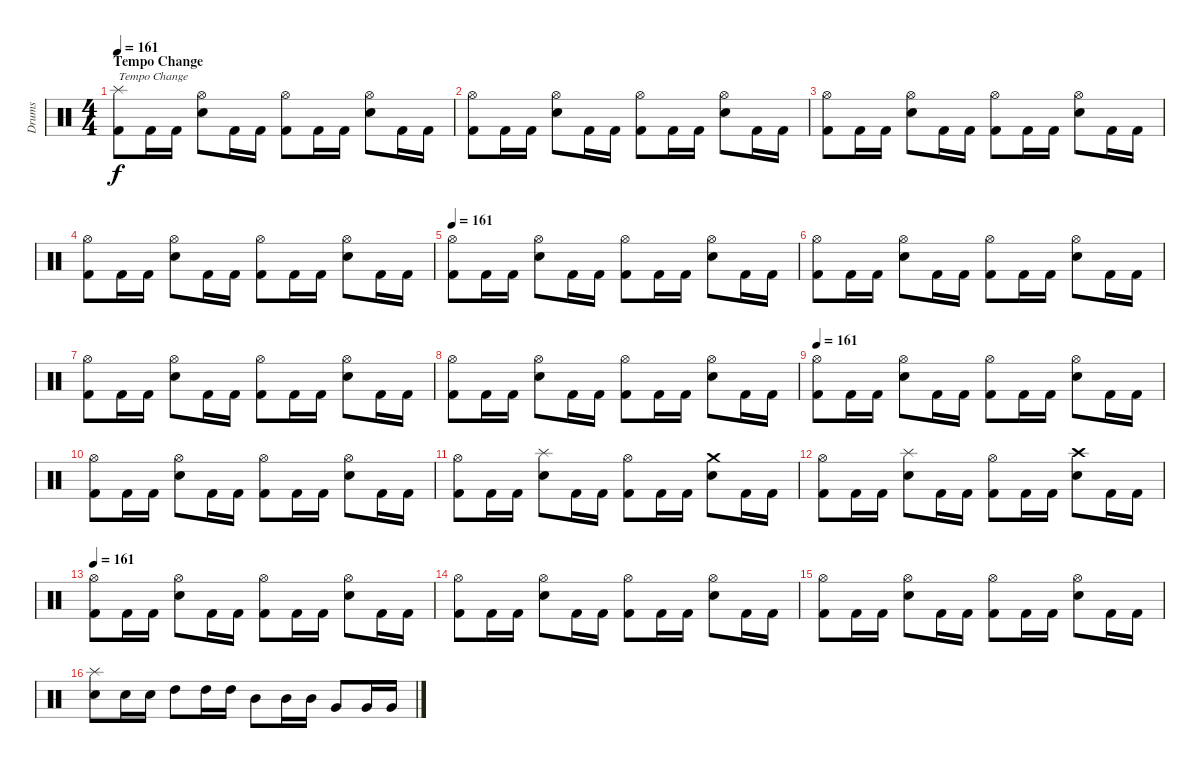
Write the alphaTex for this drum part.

\track ("Drums" "Drums") {instrument percussion}
\staff {score}
\articulation defaults
\ts (4 4)
\section ("" "Tempo Change")
\tempo 161
\clef neutral
\ks c
("Kick (hit) 2" "Splash (hit)").8{txt "Tempo Change" dy f} "Kick (hit) 2".16 "Kick (hit) 2".16 ("Electric Snare (hit)" "Hi-Hat (open)").8 "Kick (hit) 2".16 "Kick (hit) 2".16 ("Kick (hit) 2" "Hi-Hat (open)").8 "Kick (hit) 2".16 "Kick (hit) 2".16 ("Electric Snare (hit)" "Hi-Hat (open)").8 "Kick (hit) 2".16 "Kick (hit) 2".16 |
("Kick (hit) 2" "Hi-Hat (open)").8 "Kick (hit) 2".16 "Kick (hit) 2".16 ("Electric Snare (hit)" "Hi-Hat (open)").8 "Kick (hit) 2".16 "Kick (hit) 2".16 ("Kick (hit) 2" "Hi-Hat (open)").8 "Kick (hit) 2".16 "Kick (hit) 2".16 ("Electric Snare (hit)" "Hi-Hat (open)").8 "Kick (hit) 2".16 "Kick (hit) 2".16 |
("Kick (hit) 2" "Hi-Hat (open)").8 "Kick (hit) 2".16 "Kick (hit) 2".16 ("Electric Snare (hit)" "Hi-Hat (open)").8 "Kick (hit) 2".16 "Kick (hit) 2".16 ("Kick (hit) 2" "Hi-Hat (open)").8 "Kick (hit) 2".16 "Kick (hit) 2".16 ("Electric Snare (hit)" "Hi-Hat (open)").8 "Kick (hit) 2".16 "Kick (hit) 2".16 |
("Kick (hit) 2" "Hi-Hat (open)").8 "Kick (hit) 2".16 "Kick (hit) 2".16 ("Electric Snare (hit)" "Hi-Hat (open)").8 "Kick (hit) 2".16 "Kick (hit) 2".16 ("Kick (hit) 2" "Hi-Hat (open)").8 "Kick (hit) 2".16 "Kick (hit) 2".16 ("Electric Snare (hit)" "Hi-Hat (open)").8 "Kick (hit) 2".16 "Kick (hit) 2".16 |
\tempo 161
("Kick (hit) 2" "Hi-Hat (open)").8 "Kick (hit) 2".16 "Kick (hit) 2".16 ("Electric Snare (hit)" "Hi-Hat (open)").8 "Kick (hit) 2".16 "Kick (hit) 2".16 ("Kick (hit) 2" "Hi-Hat (open)").8 "Kick (hit) 2".16 "Kick (hit) 2".16 ("Electric Snare (hit)" "Hi-Hat (open)").8 "Kick (hit) 2".16 "Kick (hit) 2".16 |
("Kick (hit) 2" "Hi-Hat (open)").8 "Kick (hit) 2".16 "Kick (hit) 2".16 ("Electric Snare (hit)" "Hi-Hat (open)").8 "Kick (hit) 2".16 "Kick (hit) 2".16 ("Kick (hit) 2" "Hi-Hat (open)").8 "Kick (hit) 2".16 "Kick (hit) 2".16 ("Electric Snare (hit)" "Hi-Hat (open)").8 "Kick (hit) 2".16 "Kick (hit) 2".16 |
("Kick (hit) 2" "Hi-Hat (open)").8 "Kick (hit) 2".16 "Kick (hit) 2".16 ("Electric Snare (hit)" "Hi-Hat (open)").8 "Kick (hit) 2".16 "Kick (hit) 2".16 ("Kick (hit) 2" "Hi-Hat (open)").8 "Kick (hit) 2".16 "Kick (hit) 2".16 ("Electric Snare (hit)" "Hi-Hat (open)").8 "Kick (hit) 2".16 "Kick (hit) 2".16 |
("Kick (hit) 2" "Hi-Hat (open)").8 "Kick (hit) 2".16 "Kick (hit) 2".16 ("Electric Snare (hit)" "Hi-Hat (open)").8 "Kick (hit) 2".16 "Kick (hit) 2".16 ("Kick (hit) 2" "Hi-Hat (open)").8 "Kick (hit) 2".16 "Kick (hit) 2".16 ("Electric Snare (hit)" "Hi-Hat (open)").8 "Kick (hit) 2".16 "Kick (hit) 2".16 |
\tempo 161
("Kick (hit) 2" "Hi-Hat (open)").8 "Kick (hit) 2".16 "Kick (hit) 2".16 ("Electric Snare (hit)" "Hi-Hat (open)").8 "Kick (hit) 2".16 "Kick (hit) 2".16 ("Kick (hit) 2" "Hi-Hat (open)").8 "Kick (hit) 2".16 "Kick (hit) 2".16 ("Electric Snare (hit)" "Hi-Hat (open)").8 "Kick (hit) 2".16 "Kick (hit) 2".16 |
("Kick (hit) 2" "Hi-Hat (open)").8 "Kick (hit) 2".16 "Kick (hit) 2".16 ("Electric Snare (hit)" "Hi-Hat (open)").8 "Kick (hit) 2".16 "Kick (hit) 2".16 ("Kick (hit) 2" "Hi-Hat (open)").8 "Kick (hit) 2".16 "Kick (hit) 2".16 ("Electric Snare (hit)" "Hi-Hat (open)").8 "Kick (hit) 2".16 "Kick (hit) 2".16 |
("Kick (hit) 2" "Hi-Hat (open)").8 "Kick (hit) 2".16 "Kick (hit) 2".16 ("Electric Snare (hit)" "Splash (hit)").8 "Kick (hit) 2".16 "Kick (hit) 2".16 ("Kick (hit) 2" "Hi-Hat (open)").8 "Kick (hit) 2".16 "Kick (hit) 2".16 ("Electric Snare (hit)" "Crash medium (hit)").8 "Kick (hit) 2".16 "Kick (hit) 2".16 |
("Kick (hit) 2" "Hi-Hat (open)").8 "Kick (hit) 2".16 "Kick (hit) 2".16 ("Electric Snare (hit)" "Splash (hit)").8 "Kick (hit) 2".16 "Kick (hit) 2".16 ("Kick (hit) 2" "Hi-Hat (open)").8 "Kick (hit) 2".16 "Kick (hit) 2".16 ("Electric Snare (hit)" "Crash high (hit)").8 "Kick (hit) 2".16 "Kick (hit) 2".16 |
\tempo 161
("Kick (hit) 2" "Hi-Hat (open)").8 "Kick (hit) 2".16 "Kick (hit) 2".16 ("Electric Snare (hit)" "Hi-Hat (open)").8 "Kick (hit) 2".16 "Kick (hit) 2".16 ("Kick (hit) 2" "Hi-Hat (open)").8 "Kick (hit) 2".16 "Kick (hit) 2".16 ("Electric Snare (hit)" "Hi-Hat (open)").8 "Kick (hit) 2".16 "Kick (hit) 2".16 |
("Kick (hit) 2" "Hi-Hat (open)").8 "Kick (hit) 2".16 "Kick (hit) 2".16 ("Electric Snare (hit)" "Hi-Hat (open)").8 "Kick (hit) 2".16 "Kick (hit) 2".16 ("Kick (hit) 2" "Hi-Hat (open)").8 "Kick (hit) 2".16 "Kick (hit) 2".16 ("Electric Snare (hit)" "Hi-Hat (open)").8 "Kick (hit) 2".16 "Kick (hit) 2".16 |
("Kick (hit) 2" "Hi-Hat (open)").8 "Kick (hit) 2".16 "Kick (hit) 2".16 ("Electric Snare (hit)" "Hi-Hat (open)").8 "Kick (hit) 2".16 "Kick (hit) 2".16 ("Kick (hit) 2" "Hi-Hat (open)").8 "Kick (hit) 2".16 "Kick (hit) 2".16 ("Electric Snare (hit)" "Hi-Hat (open)").8 "Kick (hit) 2".16 "Kick (hit) 2".16 |
("Electric Snare (hit)" "Splash (hit)").8 "Electric Snare (hit)".16 "Electric Snare (hit)".16 "High Tom (hit)".8 "High Tom (hit)".16 "High Tom (hit)".16 "Mid Tom (hit)".8 "Mid Tom (hit)".16 "Mid Tom (hit)".16 "Very Low Tom (hit)".8 "Very Low Tom (hit)".16 "Very Low Tom (hit)".16
